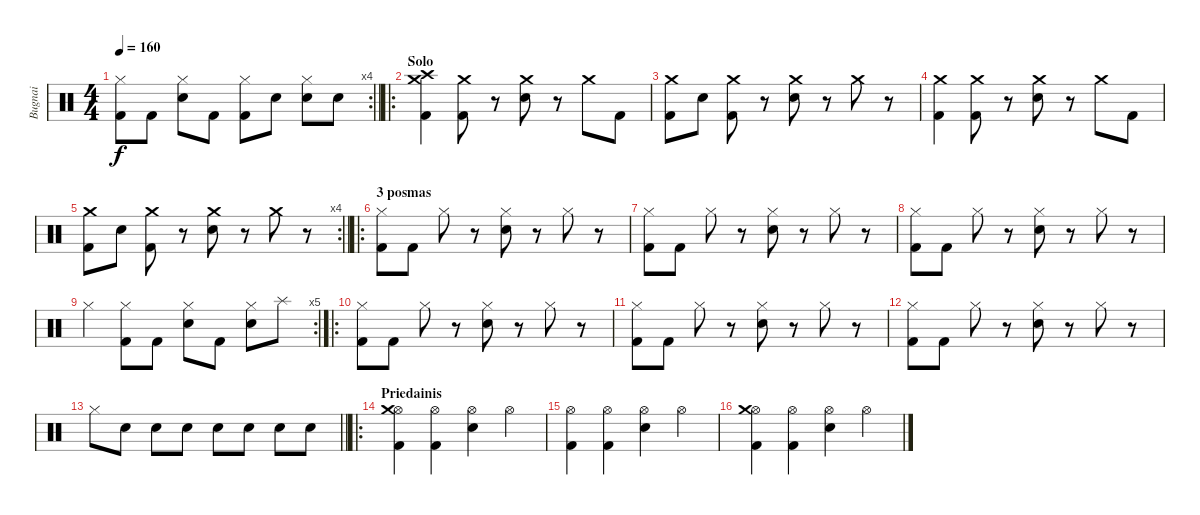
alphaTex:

\track ("Bugnai" "Bugnai") {instrument percussion}
\staff {score}
\articulation defaults
\rc 4
\ts (4 4)
\tempo 160
\clef neutral
\barLineRight lightlight
\ks c
("Hi-Hat (closed)" "Kick (hit) 2").8{dy f} "Kick (hit) 2".8 ("Hi-Hat (closed)" "Snare (hit) 2").8 "Kick (hit) 2".8 ("Hi-Hat (closed)" "Kick (hit) 2").8 "Snare (hit) 2".8 ("Hi-Hat (closed)" "Snare (hit) 2").8 "Snare (hit) 2".8 |
\ro
\section ("" "Solo")
("Crash medium (hit)" "Crash high (hit)" "Kick (hit) 2").4 ("Crash medium (hit)" "Kick (hit) 2").8 r.8 ("Crash medium (hit)" "Snare (hit) 2").8 r.8 "Crash medium (hit)".8 "Kick (hit) 2".8 |
("Crash medium (hit)" "Kick (hit) 2").8 "Snare (hit) 2".8 ("Crash medium (hit)" "Kick (hit) 2").8 r.8 ("Crash medium (hit)" "Snare (hit) 2").8 r.8 "Crash medium (hit)".8 r.8 |
("Crash medium (hit)" "Kick (hit) 2").4 ("Crash medium (hit)" "Kick (hit) 2").8 r.8 ("Crash medium (hit)" "Snare (hit) 2").8 r.8 "Crash medium (hit)".8 "Kick (hit) 2".8 |
\rc 4
\barLineRight lightlight
("Crash medium (hit)" "Kick (hit) 2").8 "Snare (hit) 2".8 ("Crash medium (hit)" "Kick (hit) 2").8 r.8 ("Crash medium (hit)" "Snare (hit) 2").8 r.8 "Crash medium (hit)".8 r.8 |
\ro
\section ("" "3 posmas")
("Hi-Hat (closed)" "Kick (hit) 2").8 "Kick (hit) 2".8 "Hi-Hat (closed)".8 r.8 ("Hi-Hat (closed)" "Snare (hit) 2").8 r.8 "Hi-Hat (closed)".8 r.8 |
("Hi-Hat (closed)" "Kick (hit) 2").8 "Kick (hit) 2".8 "Hi-Hat (closed)".8 r.8 ("Hi-Hat (closed)" "Snare (hit) 2").8 r.8 "Hi-Hat (closed)".8 r.8 |
("Hi-Hat (closed)" "Kick (hit) 2").8 "Kick (hit) 2".8 "Hi-Hat (closed)".8 r.8 ("Hi-Hat (closed)" "Snare (hit) 2").8 r.8 "Hi-Hat (closed)".8 r.8 |
\rc 5 "Hi-Hat (closed)".4
("Hi-Hat (closed)" "Kick (hit) 2").8 "Kick (hit) 2".8 ("Hi-Hat (closed)" "Snare (hit) 2").8 "Kick (hit) 2".8 ("Hi-Hat (closed)" "Snare (hit) 2").8 "Splash (hit)".8 |
\ro
("Hi-Hat (closed)" "Kick (hit) 2").8 "Kick (hit) 2".8 "Hi-Hat (closed)".8 r.8 ("Hi-Hat (closed)" "Snare (hit) 2").8 r.8 "Hi-Hat (closed)".8 r.8 |
("Hi-Hat (closed)" "Kick (hit) 2").8 "Kick (hit) 2".8 "Hi-Hat (closed)".8 r.8 ("Hi-Hat (closed)" "Snare (hit) 2").8 r.8 "Hi-Hat (closed)".8 r.8 |
("Hi-Hat (closed)" "Kick (hit) 2").8 "Kick (hit) 2".8 "Hi-Hat (closed)".8 r.8 ("Hi-Hat (closed)" "Snare (hit) 2").8 r.8 "Hi-Hat (closed)".8 r.8 |
\barLineRight lightlight "Hi-Hat (closed)".8 "Snare (hit) 2".8 "Snare (hit) 2".8 "Snare (hit) 2".8 "Snare (hit) 2".8 "Snare (hit) 2".8 "Snare (hit) 2".8 "Snare (hit) 2".8
|
\ro
\section ("" "Priedainis")
("Hi-Hat (open)" "Crash medium (hit)" "Kick (hit) 2").4 ("Hi-Hat (open)" "Kick (hit) 2").4 ("Hi-Hat (open)" "Snare (hit) 2").4 "Hi-Hat (open)".4 |
("Hi-Hat (open)" "Kick (hit) 2").4 ("Hi-Hat (open)" "Kick (hit) 2").4 ("Hi-Hat (open)" "Snare (hit) 2").4 "Hi-Hat (open)".4 |
("Hi-Hat (open)" "Crash medium (hit)" "Kick (hit) 2").4 ("Hi-Hat (open)" "Kick (hit) 2").4 ("Hi-Hat (open)" "Snare (hit) 2").4 "Hi-Hat (open)".4
